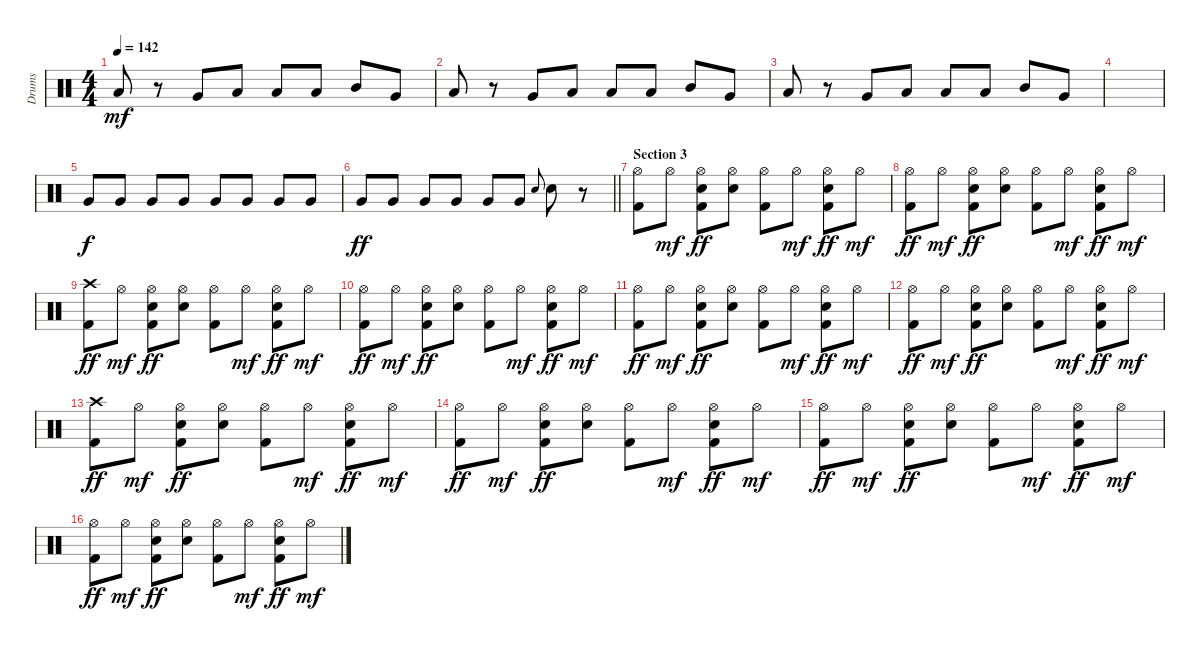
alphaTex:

\track ("Drums" "Drums") {instrument percussion}
\staff {score}
\articulation defaults
\ts (4 4)
\tempo 142
\clef neutral
\ks c "Low Tom (hit)".8{dy mf}
r.8 "Very Low Tom (hit)".8 "Low Tom (hit)".8 "Low Floor Tom (hit)".8 "Low Floor Tom (hit)".8 "Mid Tom (hit)".8 "Very Low Tom (hit)".8 |
"Low Tom (hit)".8 r.8 "Very Low Tom (hit)".8 "Low Tom (hit)".8 "Low Floor Tom (hit)".8 "Low Floor Tom (hit)".8 "Mid Tom (hit)".8 "Very Low Tom (hit)".8 |
"Low Tom (hit)".8{volume 4} r.8 "Very Low Tom (hit)".8 "Low Tom (hit)".8 "Low Floor Tom (hit)".8 "Low Floor Tom (hit)".8 "Mid Tom (hit)".8 "Very Low Tom (hit)".8 |
|
"Very Low Tom (hit)".8{dy f} "Very Low Tom (hit)".8 "Very Low Tom (hit)".8 "Very Low Tom (hit)".8 "Very Low Tom (hit)".8 "Very Low Tom (hit)".8 "Very Low Tom (hit)".8 "Very Low Tom (hit)".8 |
\barLineRight lightlight "Very Low Tom (hit)".8{dy ff volume 11} "Very Low Tom (hit)".8 "Very Low Tom (hit)".8 "Very Low Tom (hit)".8 "Very Low Tom (hit)".8 "Very Low Tom (hit)".8 "Snare (hit) 2".8{gr onbeat} "Snare (hit) 2".8
r.8 |
\section ("" "Section 3")
("Hi-Hat (open)" "Kick (hit) 2").8 "Hi-Hat (open)".8{dy mf} ("Hi-Hat (open)" "Snare (hit) 2" "Kick (hit) 2").8{dy ff} ("Hi-Hat (open)" "Snare (hit) 2").8 ("Hi-Hat (open)" "Kick (hit) 2").8 "Hi-Hat (open)".8{dy mf} ("Hi-Hat (open)" "Snare (hit) 2" "Kick (hit) 2").8{dy ff} "Hi-Hat (open)".8{dy mf} |
("Hi-Hat (open)" "Kick (hit) 2").8{dy ff} "Hi-Hat (open)".8{dy mf} ("Hi-Hat (open)" "Snare (hit) 2" "Kick (hit) 2").8{dy ff} ("Hi-Hat (open)" "Snare (hit) 2").8 ("Hi-Hat (open)" "Kick (hit) 2").8 "Hi-Hat (open)".8{dy mf} ("Hi-Hat (open)" "Snare (hit) 2" "Kick (hit) 2").8{dy ff} "Hi-Hat (open)".8{dy mf} |
("Crash high (hit)" "Kick (hit) 2").8{dy ff} "Hi-Hat (open)".8{dy mf} ("Hi-Hat (open)" "Snare (hit) 2" "Kick (hit) 2").8{dy ff} ("Hi-Hat (open)" "Snare (hit) 2").8 ("Hi-Hat (open)" "Kick (hit) 2").8 "Hi-Hat (open)".8{dy mf} ("Hi-Hat (open)" "Snare (hit) 2" "Kick (hit) 2").8{dy ff} "Hi-Hat (open)".8{dy mf} |
("Hi-Hat (open)" "Kick (hit) 2").8{dy ff} "Hi-Hat (open)".8{dy mf} ("Hi-Hat (open)" "Snare (hit) 2" "Kick (hit) 2").8{dy ff} ("Hi-Hat (open)" "Snare (hit) 2").8 ("Hi-Hat (open)" "Kick (hit) 2").8 "Hi-Hat (open)".8{dy mf} ("Hi-Hat (open)" "Snare (hit) 2" "Kick (hit) 2").8{dy ff} "Hi-Hat (open)".8{dy mf} |
("Hi-Hat (open)" "Kick (hit) 2").8{dy ff} "Hi-Hat (open)".8{dy mf} ("Hi-Hat (open)" "Snare (hit) 2" "Kick (hit) 2").8{dy ff} ("Hi-Hat (open)" "Snare (hit) 2").8 ("Hi-Hat (open)" "Kick (hit) 2").8 "Hi-Hat (open)".8{dy mf} ("Hi-Hat (open)" "Snare (hit) 2" "Kick (hit) 2").8{dy ff} "Hi-Hat (open)".8{dy mf} |
("Hi-Hat (open)" "Kick (hit) 2").8{dy ff} "Hi-Hat (open)".8{dy mf} ("Hi-Hat (open)" "Snare (hit) 2" "Kick (hit) 2").8{dy ff} ("Hi-Hat (open)" "Snare (hit) 2").8 ("Hi-Hat (open)" "Kick (hit) 2").8 "Hi-Hat (open)".8{dy mf} ("Hi-Hat (open)" "Snare (hit) 2" "Kick (hit) 2").8{dy ff} "Hi-Hat (open)".8{dy mf} |
("Crash high (hit)" "Kick (hit) 2").8{dy ff} "Hi-Hat (open)".8{dy mf} ("Hi-Hat (open)" "Snare (hit) 2" "Kick (hit) 2").8{dy ff} ("Hi-Hat (open)" "Snare (hit) 2").8 ("Hi-Hat (open)" "Kick (hit) 2").8 "Hi-Hat (open)".8{dy mf} ("Hi-Hat (open)" "Snare (hit) 2" "Kick (hit) 2").8{dy ff} "Hi-Hat (open)".8{dy mf} |
("Hi-Hat (open)" "Kick (hit) 2").8{dy ff} "Hi-Hat (open)".8{dy mf} ("Hi-Hat (open)" "Snare (hit) 2" "Kick (hit) 2").8{dy ff} ("Hi-Hat (open)" "Snare (hit) 2").8 ("Hi-Hat (open)" "Kick (hit) 2").8 "Hi-Hat (open)".8{dy mf} ("Hi-Hat (open)" "Snare (hit) 2" "Kick (hit) 2").8{dy ff} "Hi-Hat (open)".8{dy mf} |
("Hi-Hat (open)" "Kick (hit) 2").8{dy ff} "Hi-Hat (open)".8{dy mf} ("Hi-Hat (open)" "Snare (hit) 2" "Kick (hit) 2").8{dy ff} ("Hi-Hat (open)" "Snare (hit) 2").8 ("Hi-Hat (open)" "Kick (hit) 2").8 "Hi-Hat (open)".8{dy mf} ("Hi-Hat (open)" "Snare (hit) 2" "Kick (hit) 2").8{dy ff} "Hi-Hat (open)".8{dy mf} |
("Hi-Hat (open)" "Kick (hit) 2").8{dy ff} "Hi-Hat (open)".8{dy mf} ("Hi-Hat (open)" "Snare (hit) 2" "Kick (hit) 2").8{dy ff} ("Hi-Hat (open)" "Snare (hit) 2").8 ("Hi-Hat (open)" "Kick (hit) 2").8 "Hi-Hat (open)".8{dy mf} ("Hi-Hat (open)" "Snare (hit) 2" "Kick (hit) 2").8{dy ff} "Hi-Hat (open)".8{dy mf}
